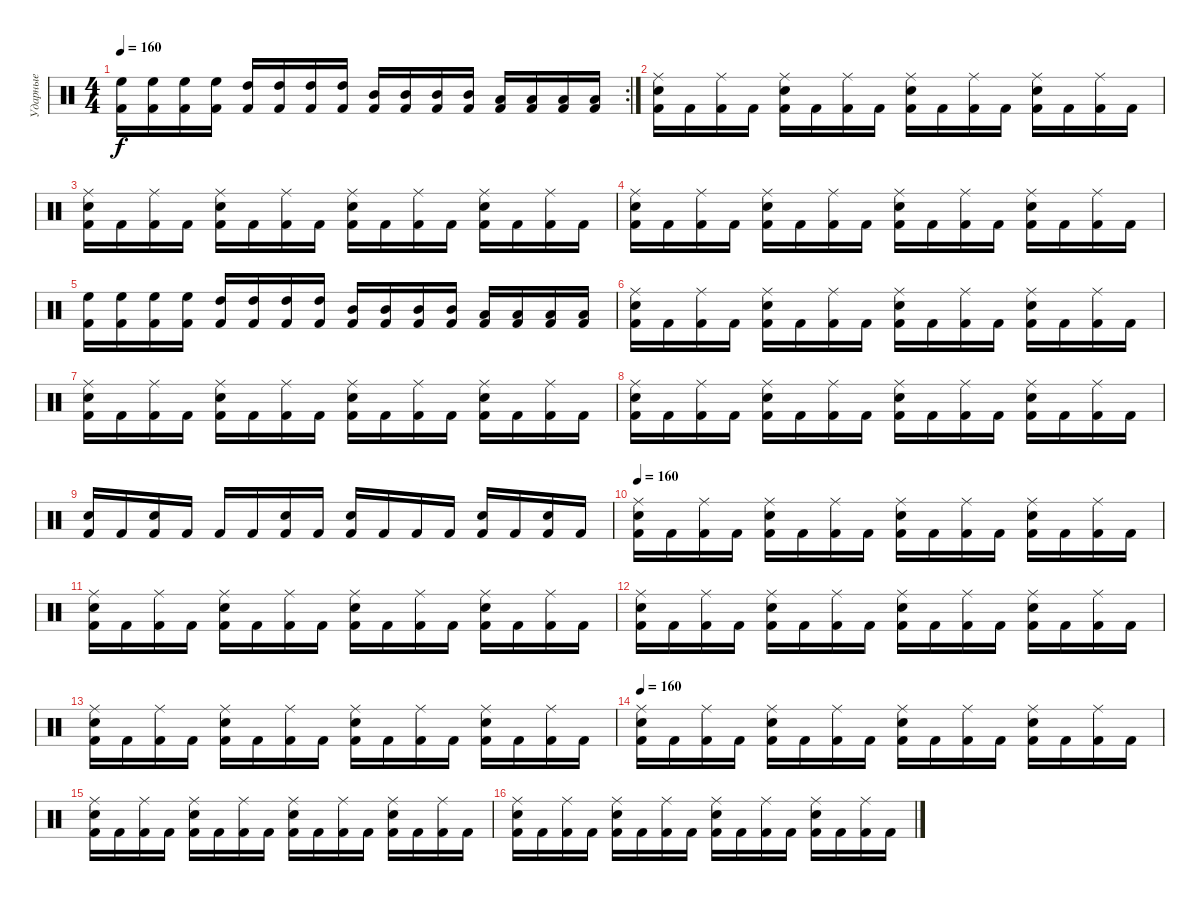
\track ("Ударные" "Ударные") {instrument percussion}
\staff {score}
\articulation defaults
\rc 2
\ts (4 4)
\tempo 160
\clef neutral
\ks c
("Kick (hit) 2" "High Floor Tom (hit)").16{dy f} ("Kick (hit) 2" "High Floor Tom (hit)").16 ("Kick (hit) 2" "High Floor Tom (hit)").16 ("Kick (hit) 2" "High Floor Tom (hit)").16 ("Kick (hit) 2" "High Tom (hit)").16 ("Kick (hit) 2" "High Tom (hit)").16 ("Kick (hit) 2" "High Tom (hit)").16 ("Kick (hit) 2" "High Tom (hit)").16 ("Kick (hit) 2" "Mid Tom (hit)").16 ("Kick (hit) 2" "Mid Tom (hit)").16 ("Kick (hit) 2" "Mid Tom (hit)").16 ("Kick (hit) 2" "Mid Tom (hit)").16 ("Kick (hit) 2" "Low Tom (hit)").16 ("Kick (hit) 2" "Low Tom (hit)").16 ("Kick (hit) 2" "Low Tom (hit)").16 ("Kick (hit) 2" "Low Tom (hit)").16 |
("Kick (hit) 2" "Ride (middle)" "Snare (hit) 2").16 "Kick (hit) 2".16 ("Kick (hit) 2" "Ride (middle)").16 "Kick (hit) 2".16 ("Kick (hit) 2" "Ride (middle)" "Snare (hit) 2").16 "Kick (hit) 2".16 ("Kick (hit) 2" "Ride (middle)").16 "Kick (hit) 2".16 ("Kick (hit) 2" "Ride (middle)" "Snare (hit) 2").16 "Kick (hit) 2".16 ("Kick (hit) 2" "Ride (middle)").16 "Kick (hit) 2".16 ("Kick (hit) 2" "Ride (middle)" "Snare (hit) 2").16 "Kick (hit) 2".16 ("Kick (hit) 2" "Ride (middle)").16 "Kick (hit) 2".16 |
("Kick (hit) 2" "Ride (middle)" "Snare (hit) 2").16 "Kick (hit) 2".16 ("Kick (hit) 2" "Ride (middle)").16 "Kick (hit) 2".16 ("Kick (hit) 2" "Ride (middle)" "Snare (hit) 2").16 "Kick (hit) 2".16 ("Kick (hit) 2" "Ride (middle)").16 "Kick (hit) 2".16 ("Kick (hit) 2" "Ride (middle)" "Snare (hit) 2").16 "Kick (hit) 2".16 ("Kick (hit) 2" "Ride (middle)").16 "Kick (hit) 2".16 ("Kick (hit) 2" "Ride (middle)" "Snare (hit) 2").16 "Kick (hit) 2".16 ("Kick (hit) 2" "Ride (middle)").16 "Kick (hit) 2".16 |
("Kick (hit) 2" "Ride (middle)" "Snare (hit) 2").16 "Kick (hit) 2".16 ("Kick (hit) 2" "Ride (middle)").16 "Kick (hit) 2".16 ("Kick (hit) 2" "Ride (middle)" "Snare (hit) 2").16 "Kick (hit) 2".16 ("Kick (hit) 2" "Ride (middle)").16 "Kick (hit) 2".16 ("Kick (hit) 2" "Ride (middle)" "Snare (hit) 2").16 "Kick (hit) 2".16 ("Kick (hit) 2" "Ride (middle)").16 "Kick (hit) 2".16 ("Kick (hit) 2" "Ride (middle)" "Snare (hit) 2").16 "Kick (hit) 2".16 ("Kick (hit) 2" "Ride (middle)").16 "Kick (hit) 2".16 |
("Kick (hit) 2" "High Floor Tom (hit)").16 ("Kick (hit) 2" "High Floor Tom (hit)").16 ("Kick (hit) 2" "High Floor Tom (hit)").16 ("Kick (hit) 2" "High Floor Tom (hit)").16 ("Kick (hit) 2" "High Tom (hit)").16 ("Kick (hit) 2" "High Tom (hit)").16 ("Kick (hit) 2" "High Tom (hit)").16 ("Kick (hit) 2" "High Tom (hit)").16 ("Kick (hit) 2" "Mid Tom (hit)").16 ("Kick (hit) 2" "Mid Tom (hit)").16 ("Kick (hit) 2" "Mid Tom (hit)").16 ("Kick (hit) 2" "Mid Tom (hit)").16 ("Kick (hit) 2" "Low Tom (hit)").16 ("Kick (hit) 2" "Low Tom (hit)").16 ("Kick (hit) 2" "Low Tom (hit)").16 ("Kick (hit) 2" "Low Tom (hit)").16 |
("Kick (hit) 2" "Ride (middle)" "Snare (hit) 2").16 "Kick (hit) 2".16 ("Kick (hit) 2" "Ride (middle)").16 "Kick (hit) 2".16 ("Kick (hit) 2" "Ride (middle)" "Snare (hit) 2").16 "Kick (hit) 2".16 ("Kick (hit) 2" "Ride (middle)").16 "Kick (hit) 2".16 ("Kick (hit) 2" "Ride (middle)" "Snare (hit) 2").16 "Kick (hit) 2".16 ("Kick (hit) 2" "Ride (middle)").16 "Kick (hit) 2".16 ("Kick (hit) 2" "Ride (middle)" "Snare (hit) 2").16 "Kick (hit) 2".16 ("Kick (hit) 2" "Ride (middle)").16 "Kick (hit) 2".16 |
("Kick (hit) 2" "Ride (middle)" "Snare (hit) 2").16 "Kick (hit) 2".16 ("Kick (hit) 2" "Ride (middle)").16 "Kick (hit) 2".16 ("Kick (hit) 2" "Ride (middle)" "Snare (hit) 2").16 "Kick (hit) 2".16 ("Kick (hit) 2" "Ride (middle)").16 "Kick (hit) 2".16 ("Kick (hit) 2" "Ride (middle)" "Snare (hit) 2").16 "Kick (hit) 2".16 ("Kick (hit) 2" "Ride (middle)").16 "Kick (hit) 2".16 ("Kick (hit) 2" "Ride (middle)" "Snare (hit) 2").16 "Kick (hit) 2".16 ("Kick (hit) 2" "Ride (middle)").16 "Kick (hit) 2".16 |
("Kick (hit) 2" "Ride (middle)" "Snare (hit) 2").16 "Kick (hit) 2".16 ("Kick (hit) 2" "Ride (middle)").16 "Kick (hit) 2".16 ("Kick (hit) 2" "Ride (middle)" "Snare (hit) 2").16 "Kick (hit) 2".16 ("Kick (hit) 2" "Ride (middle)").16 "Kick (hit) 2".16 ("Kick (hit) 2" "Ride (middle)" "Snare (hit) 2").16 "Kick (hit) 2".16 ("Kick (hit) 2" "Ride (middle)").16 "Kick (hit) 2".16 ("Kick (hit) 2" "Ride (middle)" "Snare (hit) 2").16 "Kick (hit) 2".16 ("Kick (hit) 2" "Ride (middle)").16 "Kick (hit) 2".16 |
("Kick (hit) 2" "Snare (hit) 2").16 "Kick (hit) 2".16 ("Kick (hit) 2" "Snare (hit) 2").16 "Kick (hit) 2".16 "Kick (hit) 2".16 "Kick (hit) 2".16 ("Kick (hit) 2" "Snare (hit) 2").16 "Kick (hit) 2".16 ("Kick (hit) 2" "Snare (hit) 2").16 "Kick (hit) 2".16 "Kick (hit) 2".16 "Kick (hit) 2".16 ("Kick (hit) 2" "Snare (hit) 2").16 "Kick (hit) 2".16 ("Kick (hit) 2" "Snare (hit) 2").16 "Kick (hit) 2".16 |
\tempo 160
("Kick (hit) 2" "Ride (middle)" "Snare (hit) 2").16 "Kick (hit) 2".16 ("Kick (hit) 2" "Ride (middle)").16 "Kick (hit) 2".16 ("Kick (hit) 2" "Ride (middle)" "Snare (hit) 2").16 "Kick (hit) 2".16 ("Kick (hit) 2" "Ride (middle)").16 "Kick (hit) 2".16 ("Kick (hit) 2" "Ride (middle)" "Snare (hit) 2").16 "Kick (hit) 2".16 ("Kick (hit) 2" "Ride (middle)").16 "Kick (hit) 2".16 ("Kick (hit) 2" "Ride (middle)" "Snare (hit) 2").16 "Kick (hit) 2".16 ("Kick (hit) 2" "Ride (middle)").16 "Kick (hit) 2".16 |
("Kick (hit) 2" "Ride (middle)" "Snare (hit) 2").16 "Kick (hit) 2".16 ("Kick (hit) 2" "Ride (middle)").16 "Kick (hit) 2".16 ("Kick (hit) 2" "Ride (middle)" "Snare (hit) 2").16 "Kick (hit) 2".16 ("Kick (hit) 2" "Ride (middle)").16 "Kick (hit) 2".16 ("Kick (hit) 2" "Ride (middle)" "Snare (hit) 2").16 "Kick (hit) 2".16 ("Kick (hit) 2" "Ride (middle)").16 "Kick (hit) 2".16 ("Kick (hit) 2" "Ride (middle)" "Snare (hit) 2").16 "Kick (hit) 2".16 ("Kick (hit) 2" "Ride (middle)").16 "Kick (hit) 2".16 |
("Kick (hit) 2" "Ride (middle)" "Snare (hit) 2").16 "Kick (hit) 2".16 ("Kick (hit) 2" "Ride (middle)").16 "Kick (hit) 2".16 ("Kick (hit) 2" "Ride (middle)" "Snare (hit) 2").16 "Kick (hit) 2".16 ("Kick (hit) 2" "Ride (middle)").16 "Kick (hit) 2".16 ("Kick (hit) 2" "Ride (middle)" "Snare (hit) 2").16 "Kick (hit) 2".16 ("Kick (hit) 2" "Ride (middle)").16 "Kick (hit) 2".16 ("Kick (hit) 2" "Ride (middle)" "Snare (hit) 2").16 "Kick (hit) 2".16 ("Kick (hit) 2" "Ride (middle)").16 "Kick (hit) 2".16 |
("Kick (hit) 2" "Ride (middle)" "Snare (hit) 2").16 "Kick (hit) 2".16 ("Kick (hit) 2" "Ride (middle)").16 "Kick (hit) 2".16 ("Kick (hit) 2" "Ride (middle)" "Snare (hit) 2").16 "Kick (hit) 2".16 ("Kick (hit) 2" "Ride (middle)").16 "Kick (hit) 2".16 ("Kick (hit) 2" "Ride (middle)" "Snare (hit) 2").16 "Kick (hit) 2".16 ("Kick (hit) 2" "Ride (middle)").16 "Kick (hit) 2".16 ("Kick (hit) 2" "Ride (middle)" "Snare (hit) 2").16 "Kick (hit) 2".16 ("Kick (hit) 2" "Ride (middle)").16 "Kick (hit) 2".16 |
\tempo 160
("Kick (hit) 2" "Ride (middle)" "Snare (hit) 2").16 "Kick (hit) 2".16 ("Kick (hit) 2" "Ride (middle)").16 "Kick (hit) 2".16 ("Kick (hit) 2" "Ride (middle)" "Snare (hit) 2").16 "Kick (hit) 2".16 ("Kick (hit) 2" "Ride (middle)").16 "Kick (hit) 2".16 ("Kick (hit) 2" "Ride (middle)" "Snare (hit) 2").16 "Kick (hit) 2".16 ("Kick (hit) 2" "Ride (middle)").16 "Kick (hit) 2".16 ("Kick (hit) 2" "Ride (middle)" "Snare (hit) 2").16 "Kick (hit) 2".16 ("Kick (hit) 2" "Ride (middle)").16 "Kick (hit) 2".16 |
("Kick (hit) 2" "Ride (middle)" "Snare (hit) 2").16 "Kick (hit) 2".16 ("Kick (hit) 2" "Ride (middle)").16 "Kick (hit) 2".16 ("Kick (hit) 2" "Ride (middle)" "Snare (hit) 2").16 "Kick (hit) 2".16 ("Kick (hit) 2" "Ride (middle)").16 "Kick (hit) 2".16 ("Kick (hit) 2" "Ride (middle)" "Snare (hit) 2").16 "Kick (hit) 2".16 ("Kick (hit) 2" "Ride (middle)").16 "Kick (hit) 2".16 ("Kick (hit) 2" "Ride (middle)" "Snare (hit) 2").16 "Kick (hit) 2".16 ("Kick (hit) 2" "Ride (middle)").16 "Kick (hit) 2".16 |
("Kick (hit) 2" "Ride (middle)" "Snare (hit) 2").16 "Kick (hit) 2".16 ("Kick (hit) 2" "Ride (middle)").16 "Kick (hit) 2".16 ("Kick (hit) 2" "Ride (middle)" "Snare (hit) 2").16 "Kick (hit) 2".16 ("Kick (hit) 2" "Ride (middle)").16 "Kick (hit) 2".16 ("Kick (hit) 2" "Ride (middle)" "Snare (hit) 2").16 "Kick (hit) 2".16 ("Kick (hit) 2" "Ride (middle)").16 "Kick (hit) 2".16 ("Kick (hit) 2" "Ride (middle)" "Snare (hit) 2").16 "Kick (hit) 2".16 ("Kick (hit) 2" "Ride (middle)").16 "Kick (hit) 2".16
